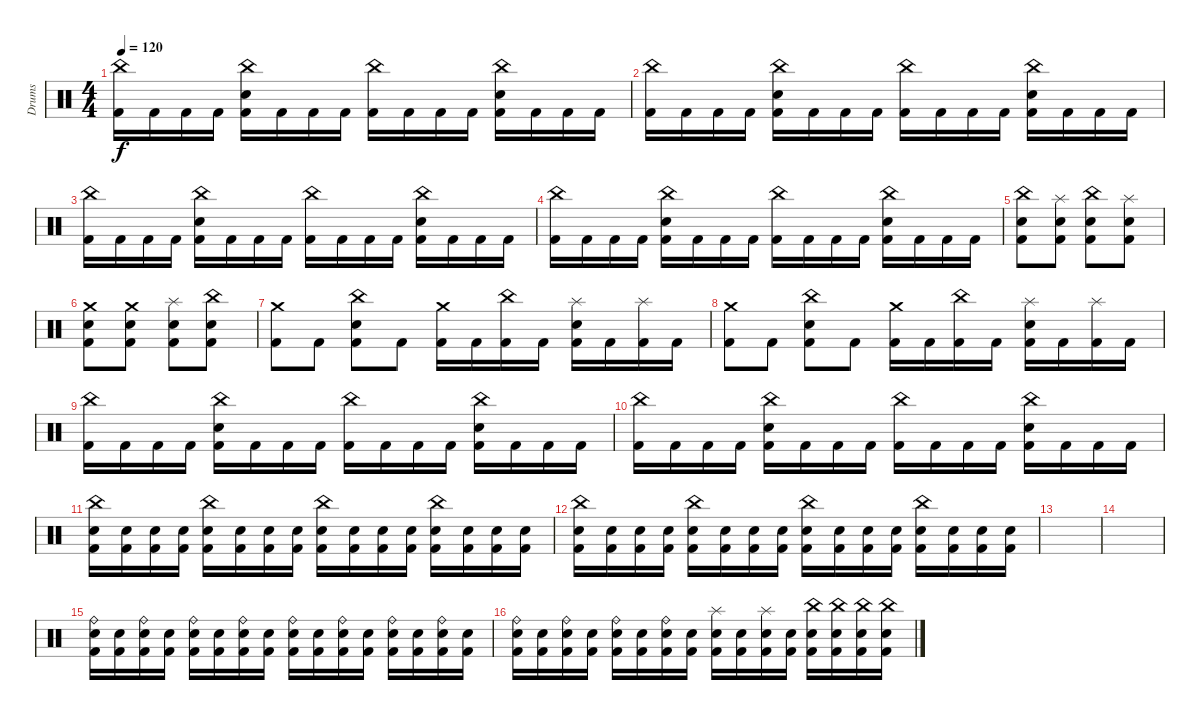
\track ("Drums" "Drums") {instrument percussion}
\staff {score}
\articulation defaults
\ts (4 4)
\tempo 120
\clef neutral
\ks c
("China (hit)" "Kick (hit) 2").16{dy f} "Kick (hit) 2".16 "Kick (hit) 2".16 "Kick (hit) 2".16 ("China (hit)" "Snare (hit) 2" "Kick (hit) 2").16 "Kick (hit) 2".16 "Kick (hit) 2".16 "Kick (hit) 2".16 ("China (hit)" "Kick (hit) 2").16 "Kick (hit) 2".16 "Kick (hit) 2".16 "Kick (hit) 2".16 ("China (hit)" "Snare (hit) 2" "Kick (hit) 2").16 "Kick (hit) 2".16 "Kick (hit) 2".16 "Kick (hit) 2".16 |
("China (hit)" "Kick (hit) 2").16 "Kick (hit) 2".16 "Kick (hit) 2".16 "Kick (hit) 2".16 ("China (hit)" "Snare (hit) 2" "Kick (hit) 2").16 "Kick (hit) 2".16 "Kick (hit) 2".16 "Kick (hit) 2".16 ("China (hit)" "Kick (hit) 2").16 "Kick (hit) 2".16 "Kick (hit) 2".16 "Kick (hit) 2".16 ("China (hit)" "Snare (hit) 2" "Kick (hit) 2").16 "Kick (hit) 2".16 "Kick (hit) 2".16 "Kick (hit) 2".16 |
("China (hit)" "Kick (hit) 2").16 "Kick (hit) 2".16 "Kick (hit) 2".16 "Kick (hit) 2".16 ("China (hit)" "Snare (hit) 2" "Kick (hit) 2").16 "Kick (hit) 2".16 "Kick (hit) 2".16 "Kick (hit) 2".16 ("China (hit)" "Kick (hit) 2").16 "Kick (hit) 2".16 "Kick (hit) 2".16 "Kick (hit) 2".16 ("China (hit)" "Snare (hit) 2" "Kick (hit) 2").16 "Kick (hit) 2".16 "Kick (hit) 2".16 "Kick (hit) 2".16 |
("China (hit)" "Kick (hit) 2").16 "Kick (hit) 2".16 "Kick (hit) 2".16 "Kick (hit) 2".16 ("China (hit)" "Snare (hit) 2" "Kick (hit) 2").16 "Kick (hit) 2".16 "Kick (hit) 2".16 "Kick (hit) 2".16 ("China (hit)" "Kick (hit) 2").16 "Kick (hit) 2".16 "Kick (hit) 2".16 "Kick (hit) 2".16 ("China (hit)" "Snare (hit) 2" "Kick (hit) 2").16 "Kick (hit) 2".16 "Kick (hit) 2".16 "Kick (hit) 2".16 |
("China (hit)" "Snare (hit) 2" "Kick (hit) 2").8 ("Splash (hit)" "Snare (hit) 2" "Kick (hit) 2").8 ("China (hit)" "Snare (hit) 2" "Kick (hit) 2").8 ("Splash (hit)" "Snare (hit) 2" "Kick (hit) 2").8 |
("Crash medium (hit)" "Snare (hit) 2" "Kick (hit) 2").8 ("Crash medium (hit)" "Snare (hit) 2" "Kick (hit) 2").8 ("Splash (hit)" "Snare (hit) 2" "Kick (hit) 2").8 ("China (hit)" "Snare (hit) 2" "Kick (hit) 2").8 |
("Crash medium (hit)" "Kick (hit) 2").8 "Kick (hit) 2".8 ("China (hit)" "Snare (hit) 2" "Kick (hit) 2").8 "Kick (hit) 2".8 ("Crash medium (hit)" "Kick (hit) 2").16 "Kick (hit) 2".16 ("China (hit)" "Kick (hit) 2").16 "Kick (hit) 2".16 ("Splash (hit)" "Snare (hit) 2" "Kick (hit) 2").16 "Kick (hit) 2".16 ("Splash (hit)" "Kick (hit) 2").16 "Kick (hit) 2".16 |
("Crash medium (hit)" "Kick (hit) 2").8 "Kick (hit) 2".8 ("China (hit)" "Snare (hit) 2" "Kick (hit) 2").8 "Kick (hit) 2".8 ("Crash medium (hit)" "Kick (hit) 2").16 "Kick (hit) 2".16 ("China (hit)" "Kick (hit) 2").16 "Kick (hit) 2".16 ("Splash (hit)" "Snare (hit) 2" "Kick (hit) 2").16 "Kick (hit) 2".16 ("Splash (hit)" "Kick (hit) 2").16 "Kick (hit) 2".16 |
("China (hit)" "Kick (hit) 2").16 "Kick (hit) 2".16 "Kick (hit) 2".16 "Kick (hit) 2".16 ("China (hit)" "Snare (hit) 2" "Kick (hit) 2").16 "Kick (hit) 2".16 "Kick (hit) 2".16 "Kick (hit) 2".16 ("China (hit)" "Kick (hit) 2").16 "Kick (hit) 2".16 "Kick (hit) 2".16 "Kick (hit) 2".16 ("China (hit)" "Snare (hit) 2" "Kick (hit) 2").16 "Kick (hit) 2".16 "Kick (hit) 2".16 "Kick (hit) 2".16 |
("China (hit)" "Kick (hit) 2").16 "Kick (hit) 2".16 "Kick (hit) 2".16 "Kick (hit) 2".16 ("China (hit)" "Snare (hit) 2" "Kick (hit) 2").16 "Kick (hit) 2".16 "Kick (hit) 2".16 "Kick (hit) 2".16 ("China (hit)" "Kick (hit) 2").16 "Kick (hit) 2".16 "Kick (hit) 2".16 "Kick (hit) 2".16 ("China (hit)" "Snare (hit) 2" "Kick (hit) 2").16 "Kick (hit) 2".16 "Kick (hit) 2".16 "Kick (hit) 2".16 |
("China (hit)" "Snare (hit) 2" "Kick (hit) 2").16 ("Snare (hit) 2" "Kick (hit) 2").16 ("Snare (hit) 2" "Kick (hit) 2").16 ("Snare (hit) 2" "Kick (hit) 2").16 ("China (hit)" "Snare (hit) 2" "Kick (hit) 2").16 ("Snare (hit) 2" "Kick (hit) 2").16 ("Snare (hit) 2" "Kick (hit) 2").16 ("Snare (hit) 2" "Kick (hit) 2").16 ("China (hit)" "Snare (hit) 2" "Kick (hit) 2").16 ("Snare (hit) 2" "Kick (hit) 2").16 ("Snare (hit) 2" "Kick (hit) 2").16 ("Snare (hit) 2" "Kick (hit) 2").16 ("China (hit)" "Snare (hit) 2" "Kick (hit) 2").16 ("Snare (hit) 2" "Kick (hit) 2").16 ("Snare (hit) 2" "Kick (hit) 2").16 ("Snare (hit) 2" "Kick (hit) 2").16 |
("China (hit)" "Snare (hit) 2" "Kick (hit) 2").16 ("Snare (hit) 2" "Kick (hit) 2").16 ("Snare (hit) 2" "Kick (hit) 2").16 ("Snare (hit) 2" "Kick (hit) 2").16 ("China (hit)" "Snare (hit) 2" "Kick (hit) 2").16 ("Snare (hit) 2" "Kick (hit) 2").16 ("Snare (hit) 2" "Kick (hit) 2").16 ("Snare (hit) 2" "Kick (hit) 2").16 ("China (hit)" "Snare (hit) 2" "Kick (hit) 2").16 ("Snare (hit) 2" "Kick (hit) 2").16 ("Snare (hit) 2" "Kick (hit) 2").16 ("Snare (hit) 2" "Kick (hit) 2").16 ("China (hit)" "Snare (hit) 2" "Kick (hit) 2").16 ("Snare (hit) 2" "Kick (hit) 2").16 ("Snare (hit) 2" "Kick (hit) 2").16 ("Snare (hit) 2" "Kick (hit) 2").16 |
|
|
("Ride (bell)" "Snare (hit) 2" "Kick (hit) 2").16 ("Snare (hit) 2" "Kick (hit) 2").16 ("Ride (bell)" "Snare (hit) 2" "Kick (hit) 2").16 ("Snare (hit) 2" "Kick (hit) 2").16 ("Ride (bell)" "Snare (hit) 2" "Kick (hit) 2").16 ("Snare (hit) 2" "Kick (hit) 2").16 ("Ride (bell)" "Snare (hit) 2" "Kick (hit) 2").16 ("Snare (hit) 2" "Kick (hit) 2").16 ("Ride (bell)" "Snare (hit) 2" "Kick (hit) 2").16 ("Snare (hit) 2" "Kick (hit) 2").16 ("Ride (bell)" "Snare (hit) 2" "Kick (hit) 2").16 ("Snare (hit) 2" "Kick (hit) 2").16 ("Ride (bell)" "Snare (hit) 2" "Kick (hit) 2").16 ("Snare (hit) 2" "Kick (hit) 2").16 ("Ride (bell)" "Snare (hit) 2" "Kick (hit) 2").16 ("Snare (hit) 2" "Kick (hit) 2").16 |
("Ride (bell)" "Snare (hit) 2" "Kick (hit) 2").16 ("Snare (hit) 2" "Kick (hit) 2").16 ("Ride (bell)" "Snare (hit) 2" "Kick (hit) 2").16 ("Snare (hit) 2" "Kick (hit) 2").16 ("Ride (bell)" "Snare (hit) 2" "Kick (hit) 2").16 ("Snare (hit) 2" "Kick (hit) 2").16 ("Ride (bell)" "Snare (hit) 2" "Kick (hit) 2").16 ("Snare (hit) 2" "Kick (hit) 2").16 ("Splash (hit)" "Snare (hit) 2" "Kick (hit) 2").16 ("Snare (hit) 2" "Kick (hit) 2").16 ("Splash (hit)" "Snare (hit) 2" "Kick (hit) 2").16 ("Snare (hit) 2" "Kick (hit) 2").16 ("China (hit)" "Snare (hit) 2" "Kick (hit) 2").16 ("China (hit)" "Snare (hit) 2" "Kick (hit) 2").16 ("China (hit)" "Snare (hit) 2" "Kick (hit) 2").16 ("China (hit)" "Snare (hit) 2" "Kick (hit) 2").16
